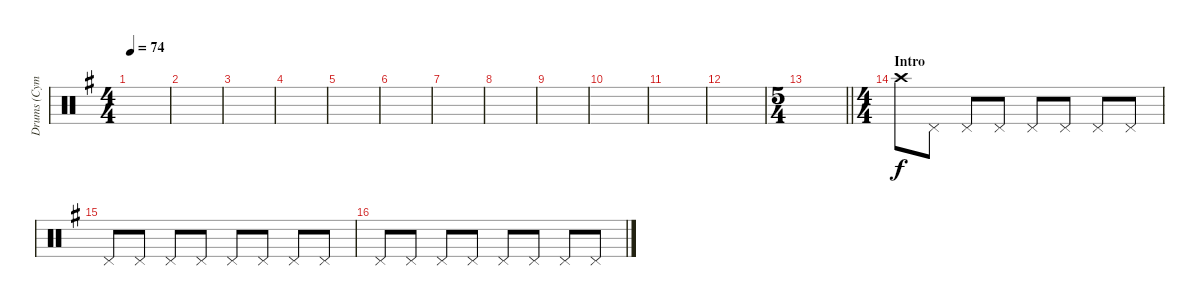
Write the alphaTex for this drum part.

\track ("Drums (Cymbals)" "Drums (Cym") {instrument percussion}
\staff {score}
\articulation defaults
\ts (4 4)
\tempo 74
\clef neutral
\ks g
|
|
|
|
|
|
|
|
|
|
|
|
\ts (5 4)
\barLineRight lightlight
|
\ts (4 4)
\section ("" "Intro")
"Crash high (hit)".8 "Pedal Hi-Hat (hit)".8 "Pedal Hi-Hat (hit)".8 "Pedal Hi-Hat (hit)".8 "Pedal Hi-Hat (hit)".8 "Pedal Hi-Hat (hit)".8 "Pedal Hi-Hat (hit)".8 "Pedal Hi-Hat (hit)".8 |
"Pedal Hi-Hat (hit)".8 "Pedal Hi-Hat (hit)".8 "Pedal Hi-Hat (hit)".8 "Pedal Hi-Hat (hit)".8 "Pedal Hi-Hat (hit)".8 "Pedal Hi-Hat (hit)".8 "Pedal Hi-Hat (hit)".8 "Pedal Hi-Hat (hit)".8 |
"Pedal Hi-Hat (hit)".8 "Pedal Hi-Hat (hit)".8 "Pedal Hi-Hat (hit)".8 "Pedal Hi-Hat (hit)".8 "Pedal Hi-Hat (hit)".8 "Pedal Hi-Hat (hit)".8 "Pedal Hi-Hat (hit)".8 "Pedal Hi-Hat (hit)".8
